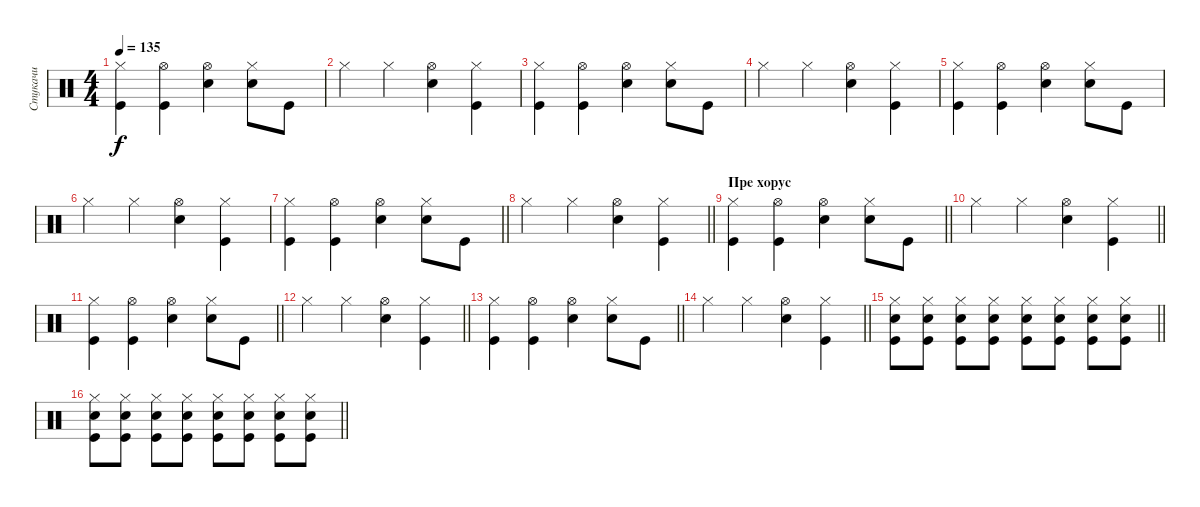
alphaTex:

\track ("Стукачи" "Стукачи") {instrument percussion}
\staff {score}
\articulation defaults
\ts (4 4)
\tempo 135
\clef neutral
\ks c
("Hi-Hat (closed)" "Kick (hit)").4{dy f} ("Hi-Hat (open)" "Kick (hit)").4 ("Hi-Hat (open)" "Snare (hit) 2").4 ("Hi-Hat (closed)" "Snare (hit) 2").8 "Kick (hit)".8 |
"Hi-Hat (closed)".4 "Hi-Hat (closed)".4 ("Hi-Hat (open)" "Snare (hit) 2").4 ("Hi-Hat (closed)" "Kick (hit)").4 |
("Hi-Hat (closed)" "Kick (hit)").4 ("Hi-Hat (open)" "Kick (hit)").4 ("Hi-Hat (open)" "Snare (hit) 2").4 ("Hi-Hat (closed)" "Snare (hit) 2").8 "Kick (hit)".8 |
"Hi-Hat (closed)".4 "Hi-Hat (closed)".4 ("Hi-Hat (open)" "Snare (hit) 2").4 ("Hi-Hat (closed)" "Kick (hit)").4 |
("Hi-Hat (closed)" "Kick (hit)").4 ("Hi-Hat (open)" "Kick (hit)").4 ("Hi-Hat (open)" "Snare (hit) 2").4 ("Hi-Hat (closed)" "Snare (hit) 2").8 "Kick (hit)".8 |
"Hi-Hat (closed)".4 "Hi-Hat (closed)".4 ("Hi-Hat (open)" "Snare (hit) 2").4 ("Hi-Hat (closed)" "Kick (hit)").4 |
\barLineRight lightlight
("Hi-Hat (closed)" "Kick (hit)").4 ("Hi-Hat (open)" "Kick (hit)").4 ("Hi-Hat (open)" "Snare (hit) 2").4 ("Hi-Hat (closed)" "Snare (hit) 2").8 "Kick (hit)".8 |
\barLineRight lightlight "Hi-Hat (closed)".4 "Hi-Hat (closed)".4
("Hi-Hat (open)" "Snare (hit) 2").4 ("Hi-Hat (closed)" "Kick (hit)").4 |
\section ("" "Пре хорус")
\barLineRight lightlight
("Hi-Hat (closed)" "Kick (hit)").4 ("Hi-Hat (open)" "Kick (hit)").4 ("Hi-Hat (open)" "Snare (hit) 2").4 ("Hi-Hat (closed)" "Snare (hit) 2").8 "Kick (hit)".8 |
\barLineRight lightlight "Hi-Hat (closed)".4 "Hi-Hat (closed)".4
("Hi-Hat (open)" "Snare (hit) 2").4 ("Hi-Hat (closed)" "Kick (hit)").4 |
\barLineRight lightlight
("Hi-Hat (closed)" "Kick (hit)").4 ("Hi-Hat (open)" "Kick (hit)").4 ("Hi-Hat (open)" "Snare (hit) 2").4 ("Hi-Hat (closed)" "Snare (hit) 2").8 "Kick (hit)".8 |
\barLineRight lightlight "Hi-Hat (closed)".4 "Hi-Hat (closed)".4
("Hi-Hat (open)" "Snare (hit) 2").4 ("Hi-Hat (closed)" "Kick (hit)").4 |
\barLineRight lightlight
("Hi-Hat (closed)" "Kick (hit)").4 ("Hi-Hat (open)" "Kick (hit)").4 ("Hi-Hat (open)" "Snare (hit) 2").4 ("Hi-Hat (closed)" "Snare (hit) 2").8 "Kick (hit)".8 |
\barLineRight lightlight "Hi-Hat (closed)".4{volume 12} "Hi-Hat (closed)".4
("Hi-Hat (open)" "Snare (hit) 2").4 ("Hi-Hat (closed)" "Kick (hit)").4 |
\section ("" "")
\barLineRight lightlight
("Hi-Hat (closed)" "Snare (hit) 2" "Kick (hit)").8{volume 16} ("Hi-Hat (closed)" "Snare (hit) 2" "Kick (hit)").8 ("Hi-Hat (closed)" "Snare (hit) 2" "Kick (hit)").8 ("Hi-Hat (closed)" "Snare (hit) 2" "Kick (hit)").8 ("Hi-Hat (closed)" "Snare (hit) 2" "Kick (hit)").8 ("Hi-Hat (closed)" "Snare (hit) 2" "Kick (hit)").8 ("Hi-Hat (closed)" "Snare (hit) 2" "Kick (hit)").8 ("Hi-Hat (closed)" "Snare (hit) 2" "Kick (hit)").8 |
\barLineRight lightlight
("Hi-Hat (closed)" "Snare (hit) 2" "Kick (hit)").8 ("Hi-Hat (closed)" "Snare (hit) 2" "Kick (hit)").8 ("Hi-Hat (closed)" "Snare (hit) 2" "Kick (hit)").8 ("Hi-Hat (closed)" "Snare (hit) 2" "Kick (hit)").8 ("Hi-Hat (closed)" "Snare (hit) 2" "Kick (hit)").8 ("Hi-Hat (closed)" "Snare (hit) 2" "Kick (hit)").8 ("Hi-Hat (closed)" "Snare (hit) 2" "Kick (hit)").8 ("Hi-Hat (closed)" "Snare (hit) 2" "Kick (hit)").8
